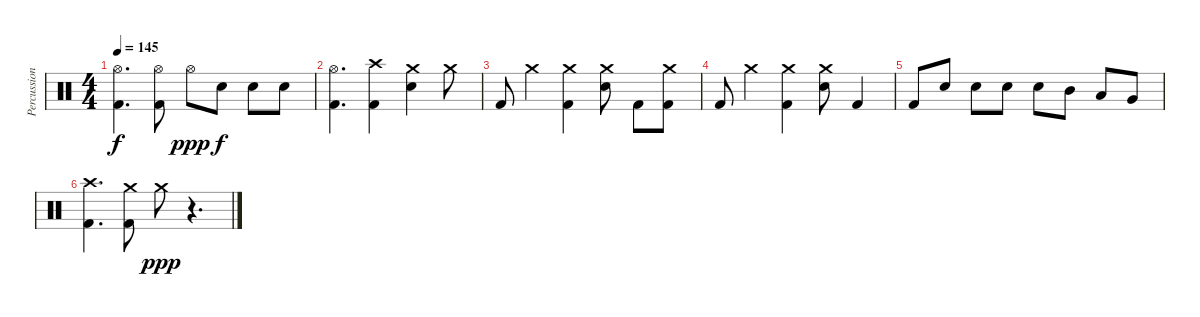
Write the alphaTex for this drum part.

\track ("Percussion" "Percussion") {instrument percussion}
\staff {score}
\articulation defaults
\ts (4 4)
\tempo 145
\clef neutral
\ks c
("Hi-Hat (open)" "Kick (hit) 2").4{d dy f} ("Hi-Hat (open)" "Kick (hit) 2").8 "Hi-Hat (open)".8{dy ppp} "Electric Snare (hit)".8{dy f} "Electric Snare (hit)".8 "Electric Snare (hit)".8 |
("Hi-Hat (open)" "Kick (hit) 2").4{d} ("Crash high (hit)" "Kick (hit) 2").4 ("Crash medium (hit)" "Electric Snare (hit)").4 "Crash medium (hit)".8 |
"Kick (hit) 2".8 "Crash medium (hit)".4 ("Crash medium (hit)" "Kick (hit) 2").4 ("Crash medium (hit)" "Electric Snare (hit)").8 "Kick (hit) 2".8 ("Crash medium (hit)" "Kick (hit) 2").8 |
"Kick (hit) 2".8 "Crash medium (hit)".4 ("Crash medium (hit)" "Kick (hit) 2").4 ("Crash medium (hit)" "Electric Snare (hit)").8 "Kick (hit) 2".4 |
"Kick (hit) 2".8 "Electric Snare (hit)".8 "Electric Snare (hit)".8 "Electric Snare (hit)".8 "Electric Snare (hit)".8 "Mid Tom (hit)".8 "Low Tom (hit)".8 "Very Low Tom (hit)".8 |
("Crash high (hit)" "Kick (hit) 2").4{d} ("Crash medium (hit)" "Kick (hit) 2").8 "Crash medium (hit)".8{dy ppp} r.4{d}
